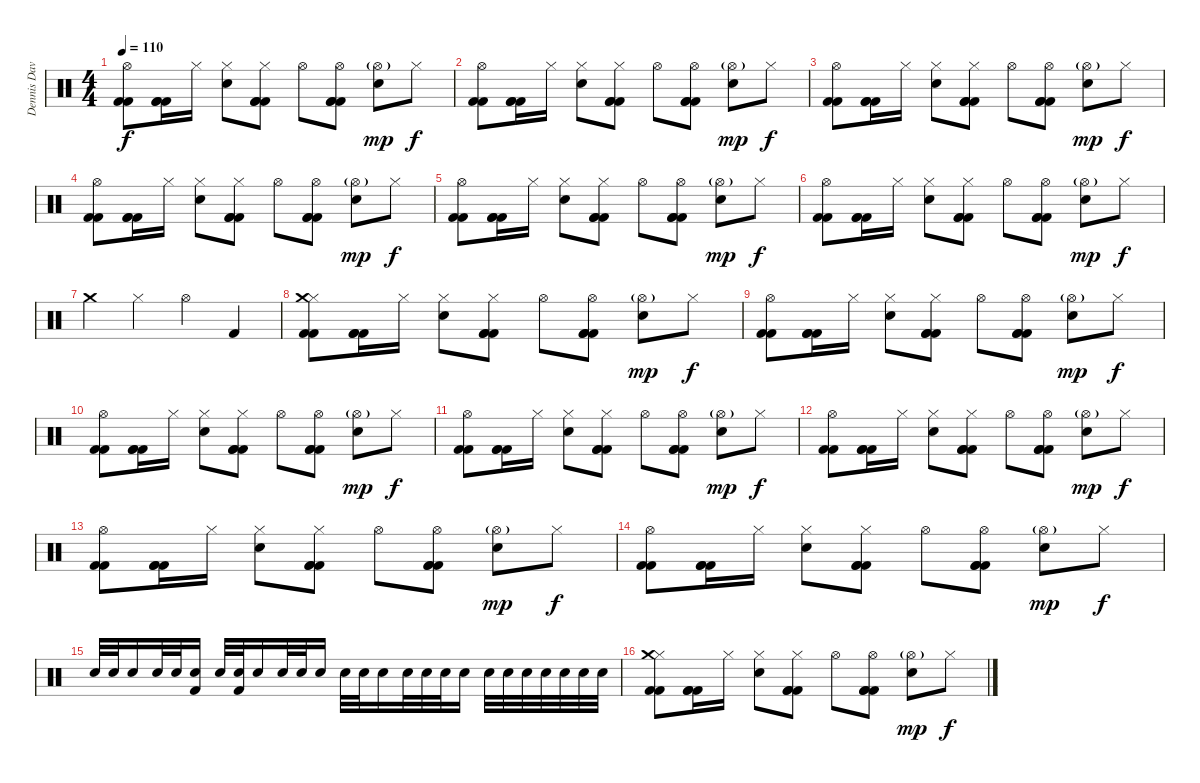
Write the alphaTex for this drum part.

\track ("Dennis Davis" "Dennis Dav") {instrument percussion}
\staff {score}
\articulation defaults
\ts (4 4)
\tempo 110
\clef neutral
\ks c
("Hi-Hat (open)" "Kick (hit) 2" "Kick (hit) 2").8{dy f} ("Kick (hit) 2" "Kick (hit) 2" "Kick (hit) 2").16 "Hi-Hat (closed)".16 ("Hi-Hat (closed)" "Snare (hit) 2").8 ("Hi-Hat (closed)" "Kick (hit) 2" "Kick (hit) 2" "Kick (hit) 2").8 "Hi-Hat (open)".8 ("Hi-Hat (open)" "Kick (hit) 2" "Kick (hit) 2" "Kick (hit) 2").8 ("Hi-Hat (open)"{g} "Snare (hit) 2").8{dy mp} "Hi-Hat (closed)".8{dy f} |
("Hi-Hat (open)" "Kick (hit) 2" "Kick (hit) 2").8 ("Kick (hit) 2" "Kick (hit) 2" "Kick (hit) 2").16 "Hi-Hat (closed)".16 ("Hi-Hat (closed)" "Snare (hit) 2").8 ("Hi-Hat (closed)" "Kick (hit) 2" "Kick (hit) 2" "Kick (hit) 2").8 "Hi-Hat (open)".8 ("Hi-Hat (open)" "Kick (hit) 2" "Kick (hit) 2" "Kick (hit) 2").8 ("Hi-Hat (open)"{g} "Snare (hit) 2").8{dy mp} "Hi-Hat (closed)".8{dy f} |
("Hi-Hat (open)" "Kick (hit) 2" "Kick (hit) 2").8 ("Kick (hit) 2" "Kick (hit) 2" "Kick (hit) 2").16 "Hi-Hat (closed)".16 ("Hi-Hat (closed)" "Snare (hit) 2").8 ("Hi-Hat (closed)" "Kick (hit) 2" "Kick (hit) 2" "Kick (hit) 2").8 "Hi-Hat (open)".8 ("Hi-Hat (open)" "Kick (hit) 2" "Kick (hit) 2" "Kick (hit) 2").8 ("Hi-Hat (open)"{g} "Snare (hit) 2").8{dy mp} "Hi-Hat (closed)".8{dy f} |
("Hi-Hat (open)" "Kick (hit) 2" "Kick (hit) 2").8 ("Kick (hit) 2" "Kick (hit) 2" "Kick (hit) 2").16 "Hi-Hat (closed)".16 ("Hi-Hat (closed)" "Snare (hit) 2").8 ("Hi-Hat (closed)" "Kick (hit) 2" "Kick (hit) 2" "Kick (hit) 2").8 "Hi-Hat (open)".8 ("Hi-Hat (open)" "Kick (hit) 2" "Kick (hit) 2" "Kick (hit) 2").8 ("Hi-Hat (open)"{g} "Snare (hit) 2").8{dy mp} "Hi-Hat (closed)".8{dy f} |
("Hi-Hat (open)" "Kick (hit) 2" "Kick (hit) 2").8 ("Kick (hit) 2" "Kick (hit) 2" "Kick (hit) 2").16 "Hi-Hat (closed)".16 ("Hi-Hat (closed)" "Snare (hit) 2").8 ("Hi-Hat (closed)" "Kick (hit) 2" "Kick (hit) 2" "Kick (hit) 2").8 "Hi-Hat (open)".8 ("Hi-Hat (open)" "Kick (hit) 2" "Kick (hit) 2" "Kick (hit) 2").8 ("Hi-Hat (open)"{g} "Snare (hit) 2").8{dy mp} "Hi-Hat (closed)".8{dy f} |
("Hi-Hat (open)" "Kick (hit) 2" "Kick (hit) 2").8 ("Kick (hit) 2" "Kick (hit) 2" "Kick (hit) 2").16 "Hi-Hat (closed)".16 ("Hi-Hat (closed)" "Snare (hit) 2").8 ("Hi-Hat (closed)" "Kick (hit) 2" "Kick (hit) 2" "Kick (hit) 2").8 "Hi-Hat (open)".8 ("Hi-Hat (open)" "Kick (hit) 2" "Kick (hit) 2" "Kick (hit) 2").8 ("Hi-Hat (open)"{g} "Snare (hit) 2").8{dy mp} "Hi-Hat (closed)".8{dy f} |
"Crash medium (hit)".4 "Hi-Hat (closed)".4 "Hi-Hat (open)".4 "Kick (hit) 2".4 |
("Hi-Hat (closed)" "Crash medium (hit)" "Kick (hit) 2" "Kick (hit) 2").8 ("Kick (hit) 2" "Kick (hit) 2" "Kick (hit) 2").16 "Hi-Hat (closed)".16 ("Hi-Hat (closed)" "Snare (hit) 2").8 ("Hi-Hat (closed)" "Kick (hit) 2" "Kick (hit) 2" "Kick (hit) 2").8 "Hi-Hat (open)".8 ("Hi-Hat (open)" "Kick (hit) 2" "Kick (hit) 2" "Kick (hit) 2").8 ("Hi-Hat (open)"{g} "Snare (hit) 2").8{dy mp} "Hi-Hat (closed)".8{dy f} |
("Hi-Hat (open)" "Kick (hit) 2" "Kick (hit) 2").8 ("Kick (hit) 2" "Kick (hit) 2" "Kick (hit) 2").16 "Hi-Hat (closed)".16 ("Hi-Hat (closed)" "Snare (hit) 2").8 ("Hi-Hat (closed)" "Kick (hit) 2" "Kick (hit) 2" "Kick (hit) 2").8 "Hi-Hat (open)".8 ("Hi-Hat (open)" "Kick (hit) 2" "Kick (hit) 2" "Kick (hit) 2").8 ("Hi-Hat (open)"{g} "Snare (hit) 2").8{dy mp} "Hi-Hat (closed)".8{dy f} |
("Hi-Hat (open)" "Kick (hit) 2" "Kick (hit) 2").8 ("Kick (hit) 2" "Kick (hit) 2" "Kick (hit) 2").16 "Hi-Hat (closed)".16 ("Hi-Hat (closed)" "Snare (hit) 2").8 ("Hi-Hat (closed)" "Kick (hit) 2" "Kick (hit) 2" "Kick (hit) 2").8 "Hi-Hat (open)".8 ("Hi-Hat (open)" "Kick (hit) 2" "Kick (hit) 2" "Kick (hit) 2").8 ("Hi-Hat (open)"{g} "Snare (hit) 2").8{dy mp} "Hi-Hat (closed)".8{dy f} |
("Hi-Hat (open)" "Kick (hit) 2" "Kick (hit) 2").8 ("Kick (hit) 2" "Kick (hit) 2" "Kick (hit) 2").16 "Hi-Hat (closed)".16 ("Hi-Hat (closed)" "Snare (hit) 2").8 ("Hi-Hat (closed)" "Kick (hit) 2" "Kick (hit) 2" "Kick (hit) 2").8 "Hi-Hat (open)".8 ("Hi-Hat (open)" "Kick (hit) 2" "Kick (hit) 2" "Kick (hit) 2").8 ("Hi-Hat (open)"{g} "Snare (hit) 2").8{dy mp} "Hi-Hat (closed)".8{dy f} |
("Hi-Hat (open)" "Kick (hit) 2" "Kick (hit) 2").8 ("Kick (hit) 2" "Kick (hit) 2" "Kick (hit) 2").16 "Hi-Hat (closed)".16 ("Hi-Hat (closed)" "Snare (hit) 2").8 ("Hi-Hat (closed)" "Kick (hit) 2" "Kick (hit) 2" "Kick (hit) 2").8 "Hi-Hat (open)".8 ("Hi-Hat (open)" "Kick (hit) 2" "Kick (hit) 2" "Kick (hit) 2").8 ("Hi-Hat (open)"{g} "Snare (hit) 2").8{dy mp} "Hi-Hat (closed)".8{dy f} |
("Hi-Hat (open)" "Kick (hit) 2" "Kick (hit) 2").8 ("Kick (hit) 2" "Kick (hit) 2" "Kick (hit) 2").16 "Hi-Hat (closed)".16 ("Hi-Hat (closed)" "Snare (hit) 2").8 ("Hi-Hat (closed)" "Kick (hit) 2" "Kick (hit) 2" "Kick (hit) 2").8 "Hi-Hat (open)".8 ("Hi-Hat (open)" "Kick (hit) 2" "Kick (hit) 2" "Kick (hit) 2").8 ("Hi-Hat (open)"{g} "Snare (hit) 2").8{dy mp} "Hi-Hat (closed)".8{dy f} |
("Hi-Hat (open)" "Kick (hit) 2" "Kick (hit) 2").8 ("Kick (hit) 2" "Kick (hit) 2" "Kick (hit) 2").16 "Hi-Hat (closed)".16 ("Hi-Hat (closed)" "Snare (hit) 2").8 ("Hi-Hat (closed)" "Kick (hit) 2" "Kick (hit) 2" "Kick (hit) 2").8 "Hi-Hat (open)".8 ("Hi-Hat (open)" "Kick (hit) 2" "Kick (hit) 2" "Kick (hit) 2").8 ("Hi-Hat (open)"{g} "Snare (hit) 2").8{dy mp} "Hi-Hat (closed)".8{dy f} |
"Snare (hit) 2".32 "Snare (hit) 2".32 "Snare (hit) 2".16 "Snare (hit) 2".32 "Snare (hit) 2".32 ("Snare (hit) 2" "Kick (hit) 2").16 "Snare (hit) 2".32 ("Snare (hit) 2" "Kick (hit) 2").32 "Snare (hit) 2".16 "Snare (hit) 2".32 "Snare (hit) 2".32 "Snare (hit) 2".16 "Snare (hit) 2".32 "Snare (hit) 2".32 "Snare (hit) 2".16 "Snare (hit) 2".32 "Snare (hit) 2".32 "Snare (hit) 2".32 "Snare (hit) 2".16 "Snare (hit) 2".32 "Snare (hit) 2".32 "Snare (hit) 2".32 "Snare (hit) 2".32 "Snare (hit) 2".32 "Snare (hit) 2".32 "Snare (hit) 2".32 |
("Hi-Hat (closed)" "Crash medium (hit)" "Kick (hit) 2" "Kick (hit) 2").8 ("Kick (hit) 2" "Kick (hit) 2" "Kick (hit) 2").16 "Hi-Hat (closed)".16 ("Hi-Hat (closed)" "Snare (hit) 2").8 ("Hi-Hat (closed)" "Kick (hit) 2" "Kick (hit) 2" "Kick (hit) 2").8 "Hi-Hat (open)".8 ("Hi-Hat (open)" "Kick (hit) 2" "Kick (hit) 2" "Kick (hit) 2").8 ("Hi-Hat (open)"{g} "Snare (hit) 2").8{dy mp} "Hi-Hat (closed)".8{dy f}
